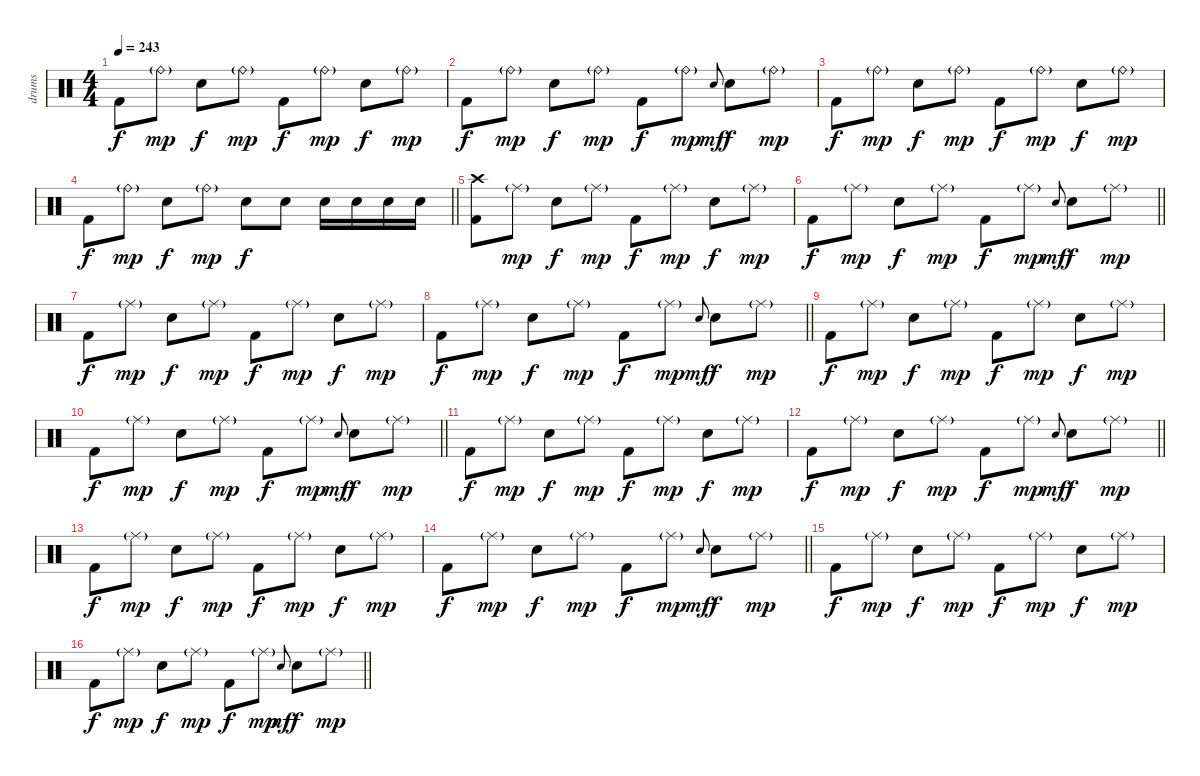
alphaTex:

\track ("drums" "drums") {instrument percussion}
\staff {score}
\articulation defaults
\ts (4 4)
\tempo 243
\clef neutral
\ks c "Kick (hit) 2".8{dy f} "Ride (bell)"{g}.8{dy mp} "Electric Snare (hit)".8{dy f} "Ride (bell)"{g}.8{dy mp} "Kick (hit) 2".8{dy f} "Ride (bell)"{g}.8{dy mp} "Electric Snare (hit)".8{dy f} "Ride (bell)"{g}.8{dy mp}
|
"Kick (hit) 2".8{dy f} "Ride (bell)"{g}.8{dy mp} "Electric Snare (hit)".8{dy f} "Ride (bell)"{g}.8{dy mp} "Kick (hit) 2".8{dy f} "Ride (bell)"{g}.8{dy mp} "Electric Snare (hit)"{x}.8{gr onbeat dy mf} "Electric Snare (hit)".8{dy f} "Ride (bell)"{g}.8{dy mp} |
"Kick (hit) 2".8{dy f} "Ride (bell)"{g}.8{dy mp} "Electric Snare (hit)".8{dy f} "Ride (bell)"{g}.8{dy mp} "Kick (hit) 2".8{dy f} "Ride (bell)"{g}.8{dy mp} "Electric Snare (hit)".8{dy f} "Ride (bell)"{g}.8{dy mp} |
\barLineRight lightlight "Kick (hit) 2".8{dy f} "Ride (bell)"{g}.8{dy mp} "Electric Snare (hit)".8{dy f} "Ride (bell)"{g}.8{dy mp} "Electric Snare (hit)".8{dy f} "Electric Snare (hit)".8 "Electric Snare (hit)".16 "Electric Snare (hit)".16 "Electric Snare (hit)".16 "Electric Snare (hit)".16
|
("Kick (hit) 2" "Crash high (hit)").8 "Ride (middle)"{g}.8{dy mp} "Electric Snare (hit)".8{dy f} "Ride (middle)"{g}.8{dy mp} "Kick (hit) 2".8{dy f} "Ride (middle)"{g}.8{dy mp} "Electric Snare (hit)".8{dy f} "Ride (middle)"{g}.8{dy mp} |
\barLineRight lightlight "Kick (hit) 2".8{dy f} "Ride (middle)"{g}.8{dy mp} "Electric Snare (hit)".8{dy f} "Ride (middle)"{g}.8{dy mp} "Kick (hit) 2".8{dy f} "Ride (middle)"{g}.8{dy mp} "Electric Snare (hit)"{x}.8{gr onbeat dy mf} "Electric Snare (hit)".8{dy f} "Ride (middle)"{g}.8{dy mp}
|
"Kick (hit) 2".8{dy f} "Ride (middle)"{g}.8{dy mp} "Electric Snare (hit)".8{dy f} "Ride (middle)"{g}.8{dy mp} "Kick (hit) 2".8{dy f} "Ride (middle)"{g}.8{dy mp} "Electric Snare (hit)".8{dy f} "Ride (middle)"{g}.8{dy mp} |
\barLineRight lightlight "Kick (hit) 2".8{dy f} "Ride (middle)"{g}.8{dy mp} "Electric Snare (hit)".8{dy f} "Ride (middle)"{g}.8{dy mp} "Kick (hit) 2".8{dy f} "Ride (middle)"{g}.8{dy mp} "Electric Snare (hit)"{x}.8{gr onbeat dy mf} "Electric Snare (hit)".8{dy f} "Ride (middle)"{g}.8{dy mp}
|
"Kick (hit) 2".8{dy f} "Ride (middle)"{g}.8{dy mp} "Electric Snare (hit)".8{dy f} "Ride (middle)"{g}.8{dy mp} "Kick (hit) 2".8{dy f} "Ride (middle)"{g}.8{dy mp} "Electric Snare (hit)".8{dy f} "Ride (middle)"{g}.8{dy mp} |
\barLineRight lightlight "Kick (hit) 2".8{dy f} "Ride (middle)"{g}.8{dy mp} "Electric Snare (hit)".8{dy f} "Ride (middle)"{g}.8{dy mp} "Kick (hit) 2".8{dy f} "Ride (middle)"{g}.8{dy mp} "Electric Snare (hit)"{x}.8{gr onbeat dy mf} "Electric Snare (hit)".8{dy f} "Ride (middle)"{g}.8{dy mp}
|
"Kick (hit) 2".8{dy f} "Ride (middle)"{g}.8{dy mp} "Electric Snare (hit)".8{dy f} "Ride (middle)"{g}.8{dy mp} "Kick (hit) 2".8{dy f} "Ride (middle)"{g}.8{dy mp} "Electric Snare (hit)".8{dy f} "Ride (middle)"{g}.8{dy mp} |
\barLineRight lightlight "Kick (hit) 2".8{dy f} "Ride (middle)"{g}.8{dy mp} "Electric Snare (hit)".8{dy f} "Ride (middle)"{g}.8{dy mp} "Kick (hit) 2".8{dy f} "Ride (middle)"{g}.8{dy mp} "Electric Snare (hit)"{x}.8{gr onbeat dy mf} "Electric Snare (hit)".8{dy f} "Ride (middle)"{g}.8{dy mp}
|
"Kick (hit) 2".8{dy f} "Ride (middle)"{g}.8{dy mp} "Electric Snare (hit)".8{dy f} "Ride (middle)"{g}.8{dy mp} "Kick (hit) 2".8{dy f} "Ride (middle)"{g}.8{dy mp} "Electric Snare (hit)".8{dy f} "Ride (middle)"{g}.8{dy mp} |
\barLineRight lightlight "Kick (hit) 2".8{dy f} "Ride (middle)"{g}.8{dy mp} "Electric Snare (hit)".8{dy f} "Ride (middle)"{g}.8{dy mp} "Kick (hit) 2".8{dy f} "Ride (middle)"{g}.8{dy mp} "Electric Snare (hit)"{x}.8{gr onbeat dy mf} "Electric Snare (hit)".8{dy f} "Ride (middle)"{g}.8{dy mp}
|
"Kick (hit) 2".8{dy f} "Ride (middle)"{g}.8{dy mp} "Electric Snare (hit)".8{dy f} "Ride (middle)"{g}.8{dy mp} "Kick (hit) 2".8{dy f} "Ride (middle)"{g}.8{dy mp} "Electric Snare (hit)".8{dy f} "Ride (middle)"{g}.8{dy mp} |
\barLineRight lightlight "Kick (hit) 2".8{dy f} "Ride (middle)"{g}.8{dy mp} "Electric Snare (hit)".8{dy f} "Ride (middle)"{g}.8{dy mp} "Kick (hit) 2".8{dy f} "Ride (middle)"{g}.8{dy mp} "Electric Snare (hit)"{x}.8{gr onbeat dy mf} "Electric Snare (hit)".8{dy f} "Ride (middle)"{g}.8{dy mp}
